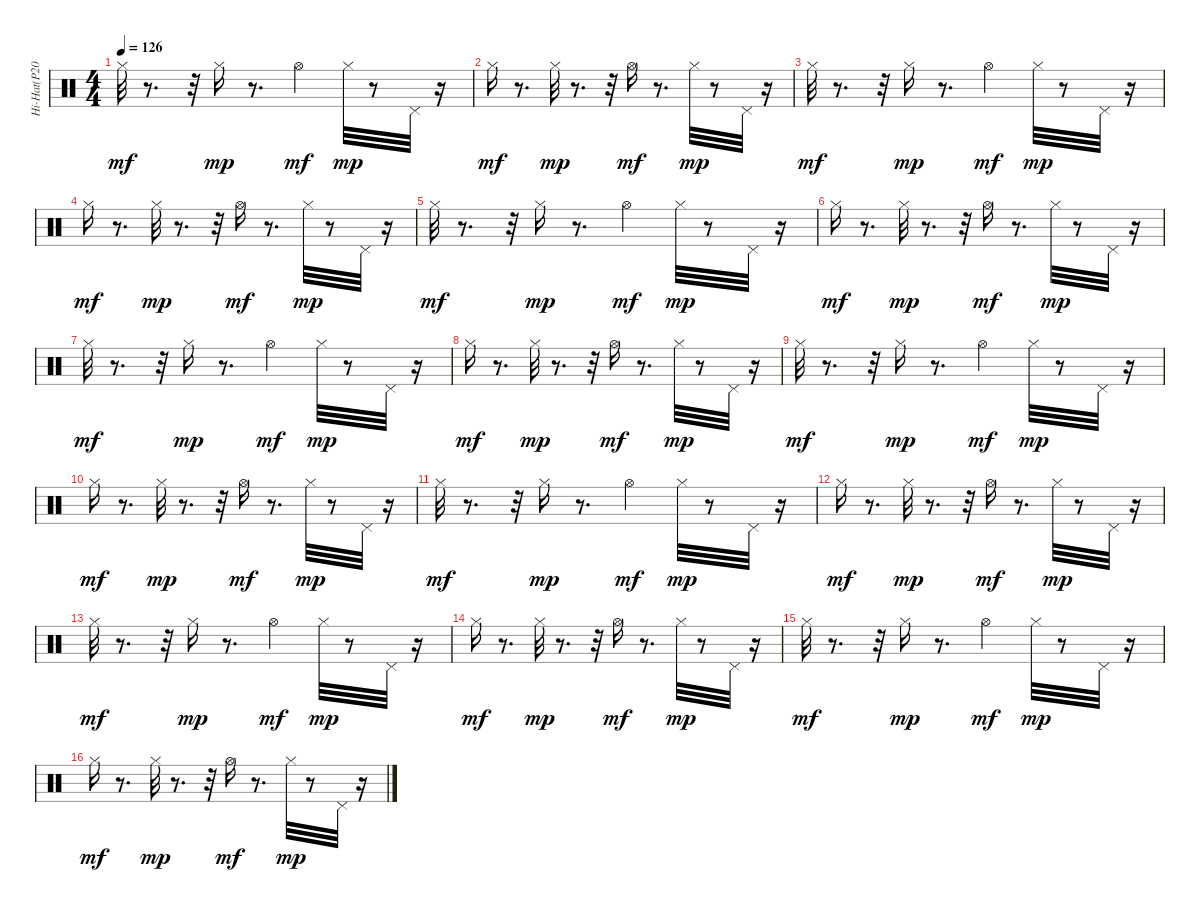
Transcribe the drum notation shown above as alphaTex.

\track ("Hi-Hat(P201)" "Hi-Hat(P20") {instrument percussion}
\staff {score}
\articulation defaults
\ts (4 4)
\tempo 126
\clef neutral
\ks c "Hi-Hat (closed)".32{dy mf}
r.8{d} r.32 "Hi-Hat (closed)".16{dy mp} r.8{d} "Hi-Hat (open)".4{dy mf} "Hi-Hat (closed)".32{dy mp} r.8 "Pedal Hi-Hat (hit)".32 r.16 |
"Hi-Hat (closed)".16{dy mf} r.8{d} "Hi-Hat (closed)".32{dy mp} r.8{d} r.32 "Hi-Hat (open)".16{dy mf} r.8{d} "Hi-Hat (closed)".32{dy mp} r.8 "Pedal Hi-Hat (hit)".32 r.16 |
"Hi-Hat (closed)".32{dy mf} r.8{d} r.32 "Hi-Hat (closed)".16{dy mp} r.8{d} "Hi-Hat (open)".4{dy mf} "Hi-Hat (closed)".32{dy mp} r.8 "Pedal Hi-Hat (hit)".32 r.16 |
"Hi-Hat (closed)".16{dy mf} r.8{d} "Hi-Hat (closed)".32{dy mp} r.8{d} r.32 "Hi-Hat (open)".16{dy mf} r.8{d} "Hi-Hat (closed)".32{dy mp} r.8 "Pedal Hi-Hat (hit)".32 r.16 |
"Hi-Hat (closed)".32{dy mf} r.8{d} r.32 "Hi-Hat (closed)".16{dy mp} r.8{d} "Hi-Hat (open)".4{dy mf} "Hi-Hat (closed)".32{dy mp} r.8 "Pedal Hi-Hat (hit)".32 r.16 |
"Hi-Hat (closed)".16{dy mf} r.8{d} "Hi-Hat (closed)".32{dy mp} r.8{d} r.32 "Hi-Hat (open)".16{dy mf} r.8{d} "Hi-Hat (closed)".32{dy mp} r.8 "Pedal Hi-Hat (hit)".32 r.16 |
"Hi-Hat (closed)".32{dy mf} r.8{d} r.32 "Hi-Hat (closed)".16{dy mp} r.8{d} "Hi-Hat (open)".4{dy mf} "Hi-Hat (closed)".32{dy mp} r.8 "Pedal Hi-Hat (hit)".32 r.16 |
"Hi-Hat (closed)".16{dy mf} r.8{d} "Hi-Hat (closed)".32{dy mp} r.8{d} r.32 "Hi-Hat (open)".16{dy mf} r.8{d} "Hi-Hat (closed)".32{dy mp} r.8 "Pedal Hi-Hat (hit)".32 r.16 |
"Hi-Hat (closed)".32{dy mf} r.8{d} r.32 "Hi-Hat (closed)".16{dy mp} r.8{d} "Hi-Hat (open)".4{dy mf} "Hi-Hat (closed)".32{dy mp} r.8 "Pedal Hi-Hat (hit)".32 r.16 |
"Hi-Hat (closed)".16{dy mf} r.8{d} "Hi-Hat (closed)".32{dy mp} r.8{d} r.32 "Hi-Hat (open)".16{dy mf} r.8{d} "Hi-Hat (closed)".32{dy mp} r.8 "Pedal Hi-Hat (hit)".32 r.16 |
"Hi-Hat (closed)".32{dy mf} r.8{d} r.32 "Hi-Hat (closed)".16{dy mp} r.8{d} "Hi-Hat (open)".4{dy mf} "Hi-Hat (closed)".32{dy mp} r.8 "Pedal Hi-Hat (hit)".32 r.16 |
"Hi-Hat (closed)".16{dy mf} r.8{d} "Hi-Hat (closed)".32{dy mp} r.8{d} r.32 "Hi-Hat (open)".16{dy mf} r.8{d} "Hi-Hat (closed)".32{dy mp} r.8 "Pedal Hi-Hat (hit)".32 r.16 |
"Hi-Hat (closed)".32{dy mf} r.8{d} r.32 "Hi-Hat (closed)".16{dy mp} r.8{d} "Hi-Hat (open)".4{dy mf} "Hi-Hat (closed)".32{dy mp} r.8 "Pedal Hi-Hat (hit)".32 r.16 |
"Hi-Hat (closed)".16{dy mf} r.8{d} "Hi-Hat (closed)".32{dy mp} r.8{d} r.32 "Hi-Hat (open)".16{dy mf} r.8{d} "Hi-Hat (closed)".32{dy mp} r.8 "Pedal Hi-Hat (hit)".32 r.16 |
"Hi-Hat (closed)".32{dy mf} r.8{d} r.32 "Hi-Hat (closed)".16{dy mp} r.8{d} "Hi-Hat (open)".4{dy mf} "Hi-Hat (closed)".32{dy mp} r.8 "Pedal Hi-Hat (hit)".32 r.16 |
"Hi-Hat (closed)".16{dy mf} r.8{d} "Hi-Hat (closed)".32{dy mp} r.8{d} r.32 "Hi-Hat (open)".16{dy mf} r.8{d} "Hi-Hat (closed)".32{dy mp} r.8 "Pedal Hi-Hat (hit)".32 r.16
